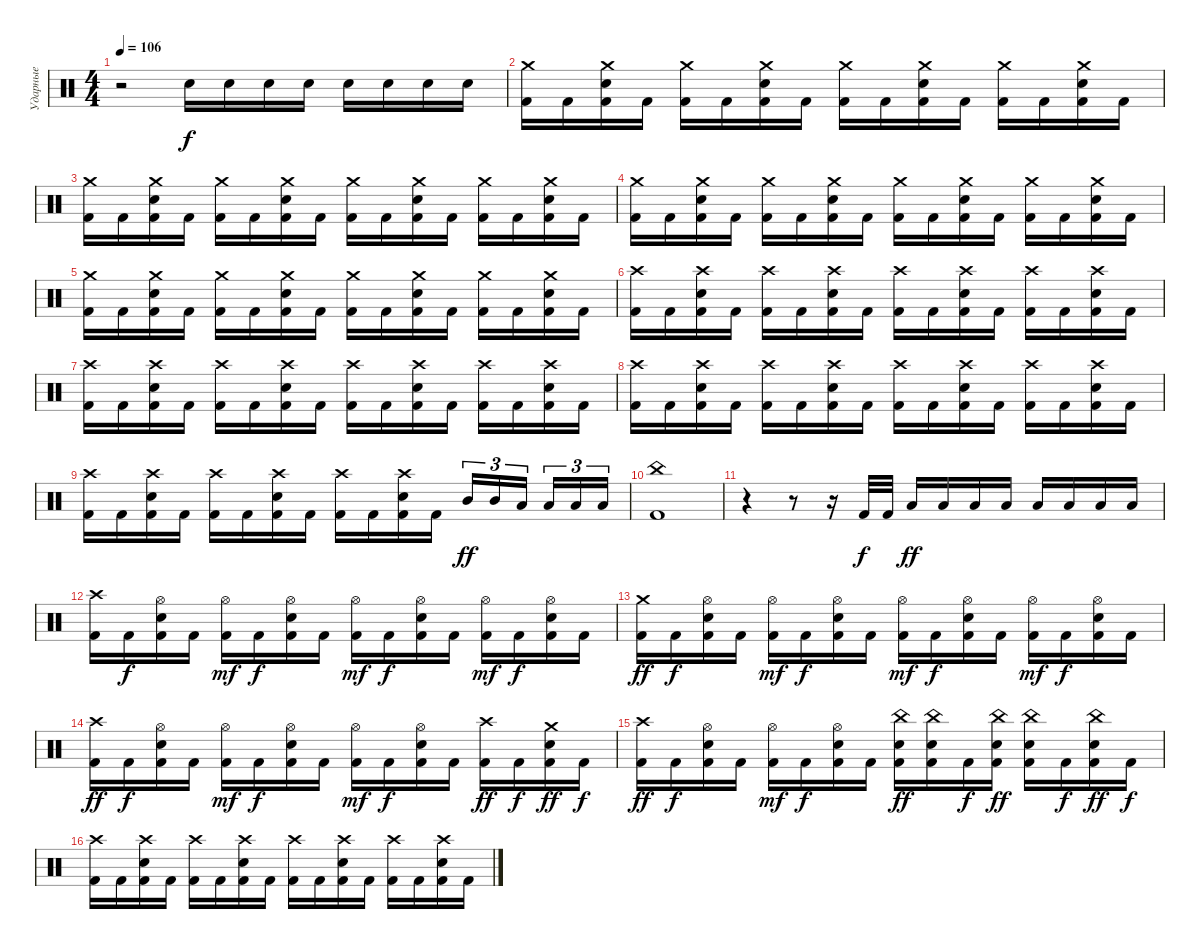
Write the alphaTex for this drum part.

\track ("Ударные" "Ударные") {instrument percussion}
\staff {score}
\articulation defaults
\ts (4 4)
\tempo 106
\clef neutral
\ks c
r.2{dy ff} "Electric Snare (hit)".16{dy f} "Electric Snare (hit)".16 "Electric Snare (hit)".16 "Electric Snare (hit)".16 "Electric Snare (hit)".16 "Electric Snare (hit)".16 "Electric Snare (hit)".16 "Electric Snare (hit)".16 |
("Crash medium (hit)" "Kick (hit) 2").16 "Kick (hit) 2".16 ("Crash medium (hit)" "Electric Snare (hit)" "Kick (hit) 2").16 "Kick (hit) 2".16 ("Crash medium (hit)" "Kick (hit) 2").16 "Kick (hit) 2".16 ("Crash medium (hit)" "Electric Snare (hit)" "Kick (hit) 2").16 "Kick (hit) 2".16 ("Crash medium (hit)" "Kick (hit) 2").16 "Kick (hit) 2".16 ("Crash medium (hit)" "Electric Snare (hit)" "Kick (hit) 2").16 "Kick (hit) 2".16 ("Crash medium (hit)" "Kick (hit) 2").16 "Kick (hit) 2".16 ("Crash medium (hit)" "Electric Snare (hit)" "Kick (hit) 2").16 "Kick (hit) 2".16 |
("Crash medium (hit)" "Kick (hit) 2").16 "Kick (hit) 2".16 ("Crash medium (hit)" "Electric Snare (hit)" "Kick (hit) 2").16 "Kick (hit) 2".16 ("Crash medium (hit)" "Kick (hit) 2").16 "Kick (hit) 2".16 ("Crash medium (hit)" "Electric Snare (hit)" "Kick (hit) 2").16 "Kick (hit) 2".16 ("Crash medium (hit)" "Kick (hit) 2").16 "Kick (hit) 2".16 ("Crash medium (hit)" "Electric Snare (hit)" "Kick (hit) 2").16 "Kick (hit) 2".16 ("Crash medium (hit)" "Kick (hit) 2").16 "Kick (hit) 2".16 ("Crash medium (hit)" "Electric Snare (hit)" "Kick (hit) 2").16 "Kick (hit) 2".16 |
("Crash medium (hit)" "Kick (hit) 2").16 "Kick (hit) 2".16 ("Crash medium (hit)" "Electric Snare (hit)" "Kick (hit) 2").16 "Kick (hit) 2".16 ("Crash medium (hit)" "Kick (hit) 2").16 "Kick (hit) 2".16 ("Crash medium (hit)" "Electric Snare (hit)" "Kick (hit) 2").16 "Kick (hit) 2".16 ("Crash medium (hit)" "Kick (hit) 2").16 "Kick (hit) 2".16 ("Crash medium (hit)" "Electric Snare (hit)" "Kick (hit) 2").16 "Kick (hit) 2".16 ("Crash medium (hit)" "Kick (hit) 2").16 "Kick (hit) 2".16 ("Crash medium (hit)" "Electric Snare (hit)" "Kick (hit) 2").16 "Kick (hit) 2".16 |
("Crash medium (hit)" "Kick (hit) 2").16 "Kick (hit) 2".16 ("Crash medium (hit)" "Electric Snare (hit)" "Kick (hit) 2").16 "Kick (hit) 2".16 ("Crash medium (hit)" "Kick (hit) 2").16 "Kick (hit) 2".16 ("Crash medium (hit)" "Electric Snare (hit)" "Kick (hit) 2").16 "Kick (hit) 2".16 ("Crash medium (hit)" "Kick (hit) 2").16 "Kick (hit) 2".16 ("Crash medium (hit)" "Electric Snare (hit)" "Kick (hit) 2").16 "Kick (hit) 2".16 ("Crash medium (hit)" "Kick (hit) 2").16 "Kick (hit) 2".16 ("Crash medium (hit)" "Electric Snare (hit)" "Kick (hit) 2").16 "Kick (hit) 2".16 |
("Crash high (hit)" "Kick (hit) 2").16 "Kick (hit) 2".16 ("Crash high (hit)" "Electric Snare (hit)" "Kick (hit) 2").16 "Kick (hit) 2".16 ("Crash high (hit)" "Kick (hit) 2").16 "Kick (hit) 2".16 ("Crash high (hit)" "Electric Snare (hit)" "Kick (hit) 2").16 "Kick (hit) 2".16 ("Crash high (hit)" "Kick (hit) 2").16 "Kick (hit) 2".16 ("Crash high (hit)" "Electric Snare (hit)" "Kick (hit) 2").16 "Kick (hit) 2".16 ("Crash high (hit)" "Kick (hit) 2").16 "Kick (hit) 2".16 ("Crash high (hit)" "Electric Snare (hit)" "Kick (hit) 2").16 "Kick (hit) 2".16 |
("Crash high (hit)" "Kick (hit) 2").16 "Kick (hit) 2".16 ("Crash high (hit)" "Electric Snare (hit)" "Kick (hit) 2").16 "Kick (hit) 2".16 ("Crash high (hit)" "Kick (hit) 2").16 "Kick (hit) 2".16 ("Crash high (hit)" "Electric Snare (hit)" "Kick (hit) 2").16 "Kick (hit) 2".16 ("Crash high (hit)" "Kick (hit) 2").16 "Kick (hit) 2".16 ("Crash high (hit)" "Electric Snare (hit)" "Kick (hit) 2").16 "Kick (hit) 2".16 ("Crash high (hit)" "Kick (hit) 2").16 "Kick (hit) 2".16 ("Crash high (hit)" "Electric Snare (hit)" "Kick (hit) 2").16 "Kick (hit) 2".16 |
("Crash high (hit)" "Kick (hit) 2").16 "Kick (hit) 2".16 ("Crash high (hit)" "Electric Snare (hit)" "Kick (hit) 2").16 "Kick (hit) 2".16 ("Crash high (hit)" "Kick (hit) 2").16 "Kick (hit) 2".16 ("Crash high (hit)" "Electric Snare (hit)" "Kick (hit) 2").16 "Kick (hit) 2".16 ("Crash high (hit)" "Kick (hit) 2").16 "Kick (hit) 2".16 ("Crash high (hit)" "Electric Snare (hit)" "Kick (hit) 2").16 "Kick (hit) 2".16 ("Crash high (hit)" "Kick (hit) 2").16 "Kick (hit) 2".16 ("Crash high (hit)" "Electric Snare (hit)" "Kick (hit) 2").16 "Kick (hit) 2".16 |
("Crash high (hit)" "Kick (hit) 2").16 "Kick (hit) 2".16 ("Crash high (hit)" "Electric Snare (hit)" "Kick (hit) 2").16 "Kick (hit) 2".16 ("Crash high (hit)" "Kick (hit) 2").16 "Kick (hit) 2".16 ("Crash high (hit)" "Electric Snare (hit)" "Kick (hit) 2").16 "Kick (hit) 2".16 ("Crash high (hit)" "Kick (hit) 2").16 "Kick (hit) 2".16 ("Crash high (hit)" "Electric Snare (hit)" "Kick (hit) 2").16 "Kick (hit) 2".16 "Mid Tom (hit)".16{tu (3 2) dy ff} "Mid Tom (hit)".16{tu (3 2)} "Low Tom (hit)".16{tu (3 2) beam splitsecondary} "Low Tom (hit)".16{tu (3 2)} "Low Floor Tom (hit)".16{tu (3 2)} "Low Floor Tom (hit)".16{tu (3 2)} |
("China (hit)" "Kick (hit) 2").1 |
r.4 r.8 r.16 "Kick (hit) 2".32{dy f} "Kick (hit) 2".32 "Low Floor Tom (hit)".16{dy ff} "Low Floor Tom (hit)".16 "Low Floor Tom (hit)".16 "Low Floor Tom (hit)".16 "Low Floor Tom (hit)".16 "Low Floor Tom (hit)".16 "Low Floor Tom (hit)".16 "Low Floor Tom (hit)".16 |
("Crash high (hit)" "Kick (hit) 2").16 "Kick (hit) 2".16{dy f} ("Hi-Hat (open)" "Electric Snare (hit)" "Kick (hit) 2").16 "Kick (hit) 2".16 ("Hi-Hat (open)" "Kick (hit) 2").16{dy mf} "Kick (hit) 2".16{dy f} ("Hi-Hat (open)" "Electric Snare (hit)" "Kick (hit) 2").16 "Kick (hit) 2".16 ("Hi-Hat (open)" "Kick (hit) 2").16{dy mf} "Kick (hit) 2".16{dy f} ("Hi-Hat (open)" "Electric Snare (hit)" "Kick (hit) 2").16 "Kick (hit) 2".16 ("Hi-Hat (open)" "Kick (hit) 2").16{dy mf} "Kick (hit) 2".16{dy f} ("Hi-Hat (open)" "Electric Snare (hit)" "Kick (hit) 2").16 "Kick (hit) 2".16 |
("Crash medium (hit)" "Kick (hit) 2").16{dy ff} "Kick (hit) 2".16{dy f} ("Hi-Hat (open)" "Electric Snare (hit)" "Kick (hit) 2").16 "Kick (hit) 2".16 ("Hi-Hat (open)" "Kick (hit) 2").16{dy mf} "Kick (hit) 2".16{dy f} ("Hi-Hat (open)" "Electric Snare (hit)" "Kick (hit) 2").16 "Kick (hit) 2".16 ("Hi-Hat (open)" "Kick (hit) 2").16{dy mf} "Kick (hit) 2".16{dy f} ("Hi-Hat (open)" "Electric Snare (hit)" "Kick (hit) 2").16 "Kick (hit) 2".16 ("Hi-Hat (open)" "Kick (hit) 2").16{dy mf} "Kick (hit) 2".16{dy f} ("Hi-Hat (open)" "Electric Snare (hit)" "Kick (hit) 2").16 "Kick (hit) 2".16 |
("Crash high (hit)" "Kick (hit) 2").16{dy ff} "Kick (hit) 2".16{dy f} ("Hi-Hat (open)" "Electric Snare (hit)" "Kick (hit) 2").16 "Kick (hit) 2".16 ("Hi-Hat (open)" "Kick (hit) 2").16{dy mf} "Kick (hit) 2".16{dy f} ("Hi-Hat (open)" "Electric Snare (hit)" "Kick (hit) 2").16 "Kick (hit) 2".16 ("Hi-Hat (open)" "Kick (hit) 2").16{dy mf} "Kick (hit) 2".16{dy f} ("Hi-Hat (open)" "Electric Snare (hit)" "Kick (hit) 2").16 "Kick (hit) 2".16 ("Crash high (hit)" "Kick (hit) 2").16{dy ff} "Kick (hit) 2".16{dy f} ("Crash medium (hit)" "Electric Snare (hit)" "Kick (hit) 2").16{dy ff} "Kick (hit) 2".16{dy f} |
("Crash high (hit)" "Kick (hit) 2").16{dy ff} "Kick (hit) 2".16{dy f} ("Hi-Hat (open)" "Electric Snare (hit)" "Kick (hit) 2").16 "Kick (hit) 2".16 ("Hi-Hat (open)" "Kick (hit) 2").16{dy mf} "Kick (hit) 2".16{dy f} ("Hi-Hat (open)" "Electric Snare (hit)" "Kick (hit) 2").16 "Kick (hit) 2".16 ("China (hit)" "Electric Snare (hit)" "Kick (hit) 2").16{dy ff} ("China (hit)" "Electric Snare (hit)" "Kick (hit) 2").16 "Kick (hit) 2".16{dy f} ("China (hit)" "Electric Snare (hit)" "Kick (hit) 2").16{dy ff} ("China (hit)" "Electric Snare (hit)" "Kick (hit) 2").16 "Kick (hit) 2".16{dy f} ("China (hit)" "Electric Snare (hit)" "Kick (hit) 2").16{dy ff} "Kick (hit) 2".16{dy f} |
("Crash high (hit)" "Kick (hit) 2").16 "Kick (hit) 2".16 ("Crash high (hit)" "Electric Snare (hit)" "Kick (hit) 2").16 "Kick (hit) 2".16 ("Crash high (hit)" "Kick (hit) 2").16 "Kick (hit) 2".16 ("Crash high (hit)" "Electric Snare (hit)" "Kick (hit) 2").16 "Kick (hit) 2".16 ("Crash high (hit)" "Kick (hit) 2").16 "Kick (hit) 2".16 ("Crash high (hit)" "Electric Snare (hit)" "Kick (hit) 2").16 "Kick (hit) 2".16 ("Crash high (hit)" "Kick (hit) 2").16 "Kick (hit) 2".16 ("Crash high (hit)" "Electric Snare (hit)" "Kick (hit) 2").16 "Kick (hit) 2".16
